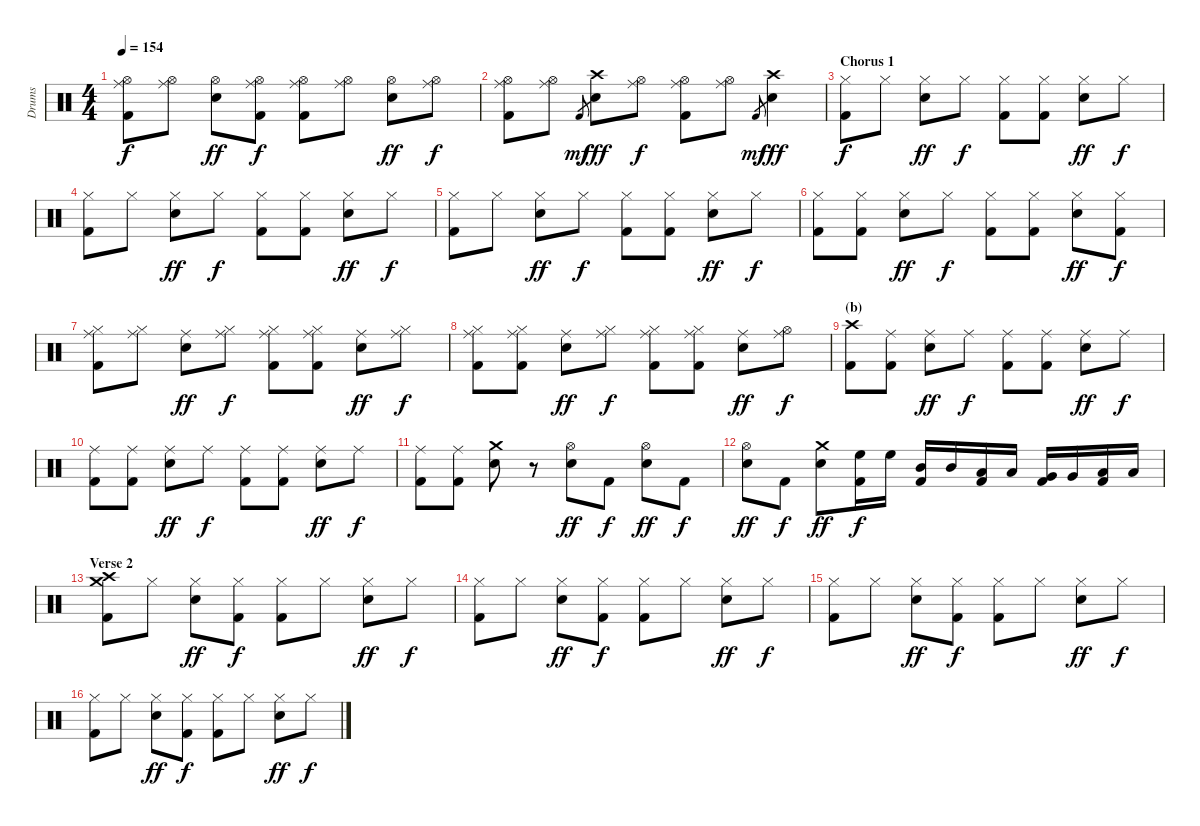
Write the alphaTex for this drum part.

\track ("Drums" "Drums") {instrument percussion}
\staff {score}
\articulation defaults
\ts (4 4)
\tempo 154
\clef neutral
\ks c
("Hi-Hat (open)" "Ride (middle)" "Kick (hit) 2").8{dy f} ("Hi-Hat (open)" "Ride (middle)").8 ("Hi-Hat (open)" "Electric Snare (hit)").8{dy ff} ("Hi-Hat (open)" "Ride (middle)" "Kick (hit) 2").8{dy f} ("Hi-Hat (open)" "Ride (middle)" "Kick (hit) 2").8 ("Hi-Hat (open)" "Ride (middle)").8 ("Hi-Hat (open)" "Electric Snare (hit)").8{dy ff} ("Hi-Hat (open)" "Ride (middle)").8{dy f} |
("Hi-Hat (open)" "Ride (middle)" "Kick (hit) 2").8 ("Hi-Hat (open)" "Ride (middle)").8 "Kick (hit) 2".8{gr dy mf} ("Crash high (hit)" "Electric Snare (hit)").8{dy fff} ("Hi-Hat (open)" "Ride (middle)").8{dy f} ("Hi-Hat (open)" "Ride (middle)" "Kick (hit) 2").8 ("Hi-Hat (open)" "Ride (middle)").8 "Kick (hit) 2".8{gr dy mf} ("Crash high (hit)" "Electric Snare (hit)").4{dy fff} |
\section ("" "Chorus 1")
("Hi-Hat (closed)" "Kick (hit) 2").8{dy f} "Hi-Hat (closed)".8 ("Hi-Hat (closed)" "Electric Snare (hit)").8{dy ff} "Hi-Hat (closed)".8{dy f} ("Hi-Hat (closed)" "Kick (hit) 2").8 ("Hi-Hat (closed)" "Kick (hit) 2").8 ("Hi-Hat (closed)" "Electric Snare (hit)").8{dy ff} "Hi-Hat (closed)".8{dy f} |
("Hi-Hat (closed)" "Kick (hit) 2").8 "Hi-Hat (closed)".8 ("Hi-Hat (closed)" "Electric Snare (hit)").8{dy ff} "Hi-Hat (closed)".8{dy f} ("Hi-Hat (closed)" "Kick (hit) 2").8 ("Hi-Hat (closed)" "Kick (hit) 2").8 ("Hi-Hat (closed)" "Electric Snare (hit)").8{dy ff} "Hi-Hat (closed)".8{dy f} |
("Hi-Hat (closed)" "Kick (hit) 2").8 "Hi-Hat (closed)".8 ("Hi-Hat (closed)" "Electric Snare (hit)").8{dy ff} "Hi-Hat (closed)".8{dy f} ("Hi-Hat (closed)" "Kick (hit) 2").8 ("Hi-Hat (closed)" "Kick (hit) 2").8 ("Hi-Hat (closed)" "Electric Snare (hit)").8{dy ff} "Hi-Hat (closed)".8{dy f} |
("Hi-Hat (closed)" "Kick (hit) 2").8 ("Hi-Hat (closed)" "Kick (hit) 2").8 ("Hi-Hat (closed)" "Electric Snare (hit)").8{dy ff} "Hi-Hat (closed)".8{dy f} ("Hi-Hat (closed)" "Kick (hit) 2").8 ("Hi-Hat (closed)" "Kick (hit) 2").8 ("Hi-Hat (closed)" "Electric Snare (hit)").8{dy ff} ("Hi-Hat (closed)" "Kick (hit) 2").8{dy f} |
("Hi-Hat (closed)" "Ride (middle)" "Kick (hit) 2").8 ("Hi-Hat (closed)" "Ride (middle)").8 ("Ride (middle)" "Electric Snare (hit)").8{dy ff} ("Hi-Hat (closed)" "Ride (middle)").8{dy f} ("Hi-Hat (closed)" "Ride (middle)" "Kick (hit) 2").8 ("Hi-Hat (closed)" "Ride (middle)" "Kick (hit) 2").8 ("Ride (middle)" "Electric Snare (hit)").8{dy ff} ("Hi-Hat (closed)" "Ride (middle)").8{dy f} |
("Hi-Hat (closed)" "Ride (middle)" "Kick (hit) 2").8 ("Hi-Hat (closed)" "Ride (middle)" "Kick (hit) 2").8 ("Ride (middle)" "Electric Snare (hit)").8{dy ff} ("Hi-Hat (closed)" "Ride (middle)").8{dy f} ("Hi-Hat (closed)" "Ride (middle)" "Kick (hit) 2").8 ("Hi-Hat (closed)" "Ride (middle)" "Kick (hit) 2").8 ("Ride (middle)" "Electric Snare (hit)").8{dy ff} ("Hi-Hat (open)" "Ride (middle)").8{dy f} |
\section ("" "(b)")
("Crash high (hit)" "Kick (hit) 2").8 ("Ride (middle)" "Kick (hit) 2").8 ("Ride (middle)" "Electric Snare (hit)").8{dy ff} "Ride (middle)".8{dy f} ("Ride (middle)" "Kick (hit) 2").8 ("Ride (middle)" "Kick (hit) 2").8 ("Ride (middle)" "Electric Snare (hit)").8{dy ff} "Ride (middle)".8{dy f} |
("Ride (middle)" "Kick (hit) 2").8 ("Ride (middle)" "Kick (hit) 2").8 ("Ride (middle)" "Electric Snare (hit)").8{dy ff} "Ride (middle)".8{dy f} ("Ride (middle)" "Kick (hit) 2").8 ("Ride (middle)" "Kick (hit) 2").8 ("Ride (middle)" "Electric Snare (hit)").8{dy ff} "Ride (middle)".8{dy f} |
("Ride (middle)" "Kick (hit) 2").8 ("Ride (middle)" "Kick (hit) 2").8 ("Crash medium (hit)" "Electric Snare (hit)").8 r.8 ("Hi-Hat (open)" "Electric Snare (hit)").8{dy ff} "Kick (hit) 2".8{dy f} ("Hi-Hat (open)" "Electric Snare (hit)").8{dy ff} "Kick (hit) 2".8{dy f} |
("Hi-Hat (open)" "Electric Snare (hit)").8{dy ff} "Kick (hit) 2".8{dy f} ("Crash medium (hit)" "Electric Snare (hit)").8{dy ff} ("High Floor Tom (hit)" "Kick (hit) 2").16{dy f} "High Floor Tom (hit)".16 ("Mid Tom (hit)" "Kick (hit) 2").16 "Mid Tom (hit)".16 ("Low Tom (hit)" "Kick (hit) 2").16 "Low Tom (hit)".16 ("Very Low Tom (hit)" "Kick (hit) 2").16 "Very Low Tom (hit)".16 ("Low Floor Tom (hit)" "Kick (hit) 2").16 "Low Floor Tom (hit)".16 |
\section ("" "Verse 2")
("Crash high (hit)" "Crash medium (hit)" "Kick (hit) 2").8 "Hi-Hat (closed)".8 ("Hi-Hat (closed)" "Electric Snare (hit)").8{dy ff} ("Hi-Hat (closed)" "Kick (hit) 2").8{dy f} ("Hi-Hat (closed)" "Kick (hit) 2").8 "Hi-Hat (closed)".8 ("Hi-Hat (closed)" "Electric Snare (hit)").8{dy ff} "Hi-Hat (closed)".8{dy f} |
("Hi-Hat (closed)" "Kick (hit) 2").8 "Hi-Hat (closed)".8 ("Hi-Hat (closed)" "Electric Snare (hit)").8{dy ff} ("Hi-Hat (closed)" "Kick (hit) 2").8{dy f} ("Hi-Hat (closed)" "Kick (hit) 2").8 "Hi-Hat (closed)".8 ("Hi-Hat (closed)" "Electric Snare (hit)").8{dy ff} "Hi-Hat (closed)".8{dy f} |
("Hi-Hat (closed)" "Kick (hit) 2").8 "Hi-Hat (closed)".8 ("Hi-Hat (closed)" "Electric Snare (hit)").8{dy ff} ("Hi-Hat (closed)" "Kick (hit) 2").8{dy f} ("Hi-Hat (closed)" "Kick (hit) 2").8 "Hi-Hat (closed)".8 ("Hi-Hat (closed)" "Electric Snare (hit)").8{dy ff} "Hi-Hat (closed)".8{dy f} |
("Hi-Hat (closed)" "Kick (hit) 2").8 "Hi-Hat (closed)".8 ("Hi-Hat (closed)" "Electric Snare (hit)").8{dy ff} ("Hi-Hat (closed)" "Kick (hit) 2").8{dy f} ("Hi-Hat (closed)" "Kick (hit) 2").8 "Hi-Hat (closed)".8 ("Hi-Hat (closed)" "Electric Snare (hit)").8{dy ff} "Hi-Hat (closed)".8{dy f}
